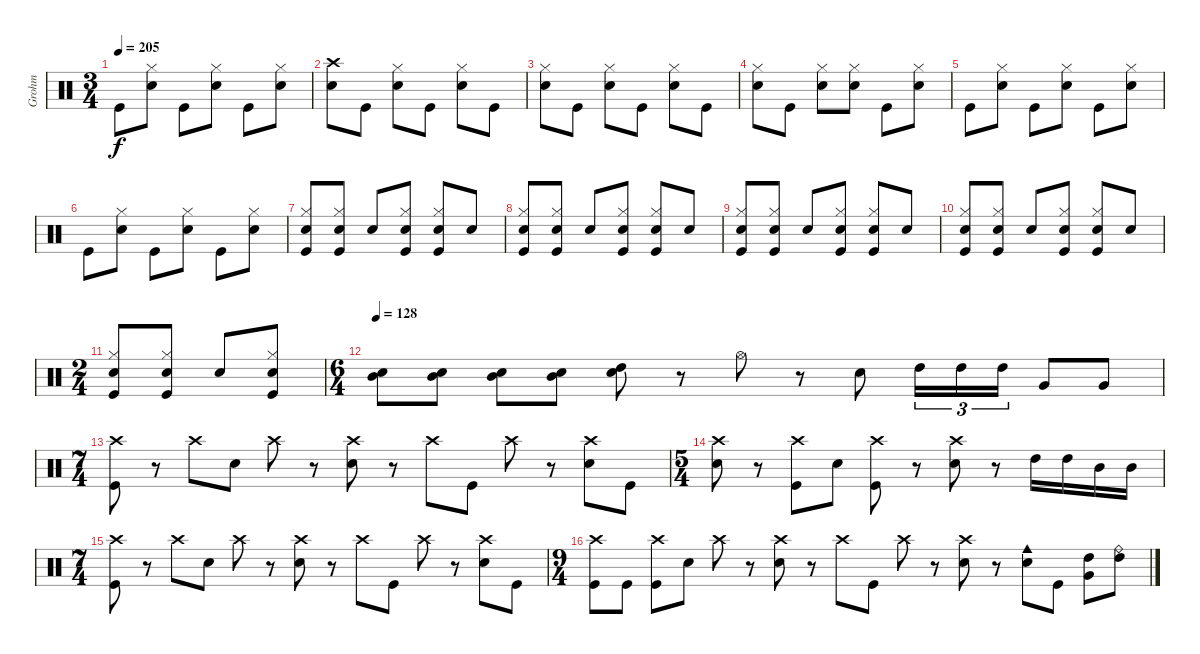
\track ("Grohm" "Grohm") {instrument percussion}
\staff {score}
\articulation defaults
\ts (3 4)
\tempo 205
\clef neutral
\ks c "Kick (hit)".8{dy f}
("Hi-Hat (closed)" "Snare (hit) 2").8 "Kick (hit)".8 ("Hi-Hat (closed)" "Snare (hit) 2").8 "Kick (hit)".8 ("Hi-Hat (closed)" "Snare (hit) 2").8 |
("Crash high (hit)" "Snare (hit) 2").8 "Kick (hit)".8 ("Hi-Hat (closed)" "Snare (hit) 2").8 "Kick (hit)".8 ("Hi-Hat (closed)" "Snare (hit) 2").8 "Kick (hit)".8 |
("Hi-Hat (closed)" "Snare (hit) 2").8 "Kick (hit)".8 ("Hi-Hat (closed)" "Snare (hit) 2").8 "Kick (hit)".8 ("Hi-Hat (closed)" "Snare (hit) 2").8 "Kick (hit)".8 |
("Hi-Hat (closed)" "Snare (hit) 2").8 "Kick (hit)".8 ("Hi-Hat (closed)" "Snare (hit) 2").8 ("Hi-Hat (closed)" "Snare (hit) 2").8 "Kick (hit)".8 ("Hi-Hat (closed)" "Snare (hit) 2").8 |
"Kick (hit)".8 ("Hi-Hat (closed)" "Snare (hit) 2").8 "Kick (hit)".8 ("Hi-Hat (closed)" "Snare (hit) 2").8 "Kick (hit)".8 ("Hi-Hat (closed)" "Snare (hit) 2").8 |
"Kick (hit)".8 ("Hi-Hat (closed)" "Snare (hit) 2").8 "Kick (hit)".8 ("Hi-Hat (closed)" "Snare (hit) 2").8 "Kick (hit)".8 ("Hi-Hat (closed)" "Snare (hit) 2").8 |
("Hi-Hat (closed)" "Snare (hit) 2" "Kick (hit)").8 ("Hi-Hat (closed)" "Snare (hit) 2" "Kick (hit)").8 "Snare (hit) 2".8 ("Hi-Hat (closed)" "Snare (hit) 2" "Kick (hit)").8 ("Hi-Hat (closed)" "Snare (hit) 2" "Kick (hit)").8 "Snare (hit) 2".8 |
("Hi-Hat (closed)" "Snare (hit) 2" "Kick (hit)").8 ("Hi-Hat (closed)" "Snare (hit) 2" "Kick (hit)").8 "Snare (hit) 2".8 ("Hi-Hat (closed)" "Snare (hit) 2" "Kick (hit)").8 ("Hi-Hat (closed)" "Snare (hit) 2" "Kick (hit)").8 "Snare (hit) 2".8 |
("Hi-Hat (closed)" "Snare (hit) 2" "Kick (hit)").8 ("Hi-Hat (closed)" "Snare (hit) 2" "Kick (hit)").8 "Snare (hit) 2".8 ("Hi-Hat (closed)" "Snare (hit) 2" "Kick (hit)").8 ("Hi-Hat (closed)" "Snare (hit) 2" "Kick (hit)").8 "Snare (hit) 2".8 |
("Hi-Hat (closed)" "Snare (hit) 2" "Kick (hit)").8 ("Hi-Hat (closed)" "Snare (hit) 2" "Kick (hit)").8 "Snare (hit) 2".8 ("Hi-Hat (closed)" "Snare (hit) 2" "Kick (hit)").8 ("Hi-Hat (closed)" "Snare (hit) 2" "Kick (hit)").8 "Snare (hit) 2".8 |
\ts (2 4)
("Hi-Hat (closed)" "Snare (hit) 2" "Kick (hit)").8 ("Hi-Hat (closed)" "Snare (hit) 2" "Kick (hit)").8 "Snare (hit) 2".8 ("Hi-Hat (closed)" "Snare (hit) 2" "Kick (hit)").8 |
\ts (6 4)
\tempo 128
("Snare (hit) 2" "Mid Tom (hit)").8 ("Snare (hit) 2" "Mid Tom (hit)").8 ("Snare (hit) 2" "Mid Tom (hit)").8 ("Snare (hit) 2" "Mid Tom (hit)").8 ("Snare (hit) 2" "High Tom (hit)").8 r.8 "Hi-Hat (open)".8 r.8 "Snare (hit) 2".8 "High Tom (hit)".16{tu (3 2)} "High Tom (hit)".16{tu (3 2)} "High Tom (hit)".16{tu (3 2)} "Very Low Tom (hit)".8 "Very Low Tom (hit)".8 |
\ts (7 4)
("Crash high (hit)" "Kick (hit)").8 r.8 "Crash high (hit)".8 "Snare (hit) 2".8 "Crash high (hit)".8 r.8 ("Crash high (hit)" "Snare (hit) 2").8 r.8 "Crash high (hit)".8 "Kick (hit)".8 "Crash high (hit)".8 r.8 ("Crash high (hit)" "Snare (hit) 2").8 "Kick (hit)".8 |
\ts (5 4)
("Crash high (hit)" "Snare (hit) 2").8 r.8 ("Crash high (hit)" "Kick (hit)").8 "Snare (hit) 2".8 ("Crash high (hit)" "Kick (hit)").8 r.8 ("Crash high (hit)" "Snare (hit) 2").8 r.8 "High Tom (hit)".16 "High Tom (hit)".16 "Mid Tom (hit)".16 "Mid Tom (hit)".16 |
\ts (7 4)
("Crash high (hit)" "Kick (hit)").8 r.8 "Crash high (hit)".8 "Snare (hit) 2".8 "Crash high (hit)".8 r.8 ("Crash high (hit)" "Snare (hit) 2").8 r.8 "Crash high (hit)".8 "Kick (hit)".8 "Crash high (hit)".8 r.8 ("Crash high (hit)" "Snare (hit) 2").8 "Kick (hit)".8 |
\ts (9 4)
("Crash high (hit)" "Kick (hit)").8 "Kick (hit)".8 ("Crash high (hit)" "Kick (hit)").8 "Snare (hit) 2".8 "Crash high (hit)".8 r.8 ("Crash high (hit)" "Snare (hit) 2").8 r.8 "Crash high (hit)".8 "Kick (hit)".8 "Crash high (hit)".8 r.8 ("Crash high (hit)" "Snare (hit) 2").8 r.8 ("Cowbell medium (hit)" "Snare (hit) 2").8 "Kick (hit)".8 ("High Tom (hit)" "Very Low Tom (hit)").8 ("High Tom (hit)" "Ride (bell)").8
